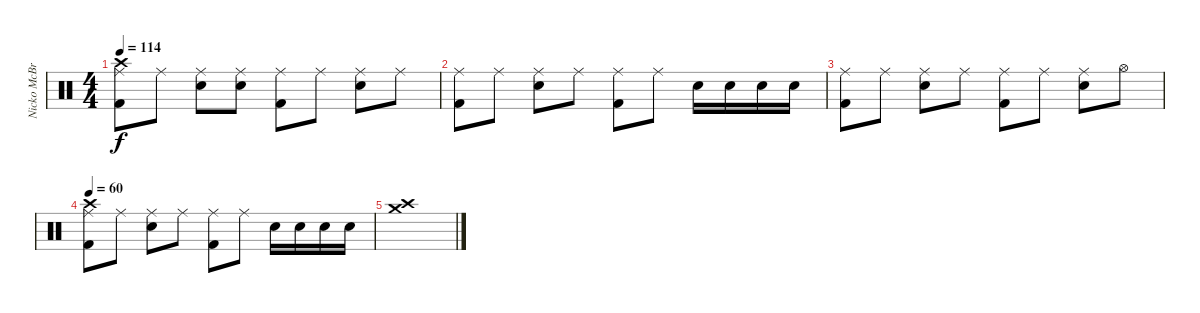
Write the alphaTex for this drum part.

\track ("Nicko McBrain" "Nicko McBr") {instrument percussion}
\staff {score}
\articulation defaults
\ts (4 4)
\tempo 114
\clef neutral
\ks c
("Ride (middle)" "Kick (hit) 2" "Crash high (hit)").8{dy f} "Ride (middle)".8 ("Ride (middle)" "Snare (hit) 2").8 ("Ride (middle)" "Snare (hit) 2").8 ("Ride (middle)" "Kick (hit) 2").8 "Ride (middle)".8 ("Ride (middle)" "Snare (hit) 2").8 "Ride (middle)".8 |
("Ride (middle)" "Kick (hit) 2").8 "Ride (middle)".8 ("Ride (middle)" "Snare (hit) 2").8 "Ride (middle)".8 ("Ride (middle)" "Kick (hit) 2").8 "Ride (middle)".8 "Snare (hit) 2".16 "Snare (hit) 2".16 "Snare (hit) 2".16 "Snare (hit) 2".16 |
("Ride (middle)" "Kick (hit) 2").8 "Ride (middle)".8 ("Ride (middle)" "Snare (hit) 2").8 "Ride (middle)".8 ("Ride (middle)" "Kick (hit) 2").8 "Ride (middle)".8 ("Ride (middle)" "Snare (hit) 2").8 "Hi-Hat (open)".8 |
\tempo 60
("Ride (middle)" "Kick (hit) 2" "Crash high (hit)").8 "Ride (middle)".8 ("Ride (middle)" "Snare (hit) 2").8 "Ride (middle)".8 ("Ride (middle)" "Kick (hit) 2").8 "Ride (middle)".8 "Snare (hit) 2".16 "Snare (hit) 2".16 "Snare (hit) 2".16 "Snare (hit) 2".16 |
("Crash high (hit)" "Crash medium (hit)").1
